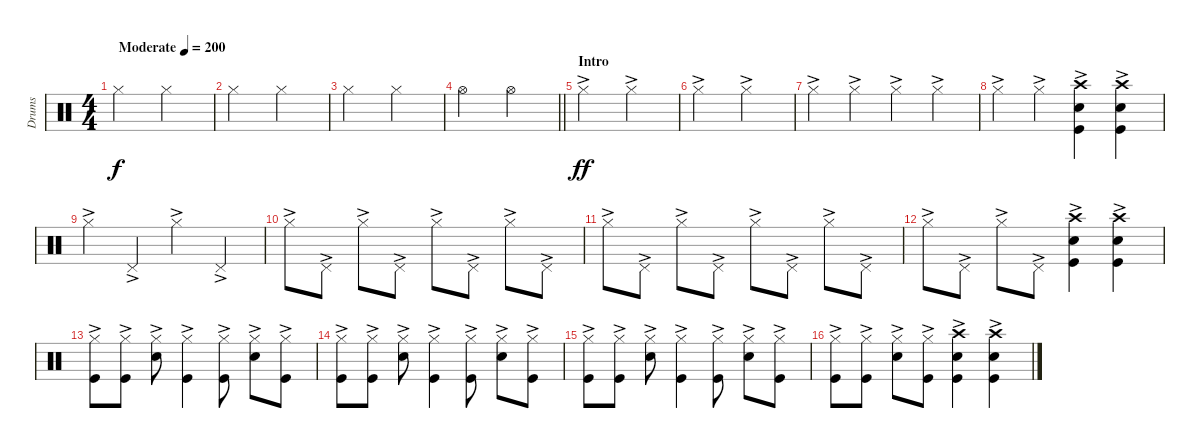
\track ("Drums" "Drums") {instrument percussion}
\staff {score}
\articulation defaults
\ts (4 4)
\tempo (200 "Moderate")
\clef neutral
\ks c "Hi-Hat (closed)".2{dy f} "Hi-Hat (closed)".2
|
"Hi-Hat (closed)".2 "Hi-Hat (closed)".2 |
"Hi-Hat (closed)".2 "Hi-Hat (closed)".2 |
\barLineRight lightlight "Hi-Hat (open)".2 "Hi-Hat (open)".2
|
\section ("" "Intro")
"Hi-Hat (closed)"{ac}.2{dy ff} "Hi-Hat (closed)"{ac}.2 |
"Hi-Hat (closed)"{ac}.2 "Hi-Hat (closed)"{ac}.2 |
"Hi-Hat (closed)"{ac}.4 "Hi-Hat (closed)"{ac}.4 "Hi-Hat (closed)"{ac}.4 "Hi-Hat (closed)"{ac}.4 |
"Hi-Hat (closed)"{ac}.4 "Hi-Hat (closed)"{ac}.4 ("Crash high (hit)"{ac} "Snare (hit) 2"{ac} "Kick (hit)"{ac}).4 ("Crash high (hit)"{ac} "Snare (hit) 2"{ac} "Kick (hit)"{ac}).4 |
"Hi-Hat (closed)"{ac}.4 "Pedal Hi-Hat (hit)"{ac}.4 "Hi-Hat (closed)"{ac}.4 "Pedal Hi-Hat (hit)"{ac}.4 |
"Hi-Hat (closed)"{ac}.8 "Pedal Hi-Hat (hit)"{ac}.8 "Hi-Hat (closed)"{ac}.8 "Pedal Hi-Hat (hit)"{ac}.8 "Hi-Hat (closed)"{ac}.8 "Pedal Hi-Hat (hit)"{ac}.8 "Hi-Hat (closed)"{ac}.8 "Pedal Hi-Hat (hit)"{ac}.8 |
"Hi-Hat (closed)"{ac}.8 "Pedal Hi-Hat (hit)"{ac}.8 "Hi-Hat (closed)"{ac}.8 "Pedal Hi-Hat (hit)"{ac}.8 "Hi-Hat (closed)"{ac}.8 "Pedal Hi-Hat (hit)"{ac}.8 "Hi-Hat (closed)"{ac}.8 "Pedal Hi-Hat (hit)"{ac}.8 |
"Hi-Hat (closed)"{ac}.8 "Pedal Hi-Hat (hit)"{ac}.8 "Hi-Hat (closed)"{ac}.8 "Pedal Hi-Hat (hit)"{ac}.8 ("Crash high (hit)"{ac} "Snare (hit) 2"{ac} "Kick (hit)"{ac}).4 ("Crash high (hit)"{ac} "Snare (hit) 2"{ac} "Kick (hit)"{ac}).4 |
("Hi-Hat (closed)"{ac} "Kick (hit)"{ac}).8 ("Hi-Hat (closed)"{ac} "Kick (hit)"{ac}).8 ("Hi-Hat (closed)"{ac} "Snare (hit) 2"{ac}).8 ("Hi-Hat (closed)"{ac} "Kick (hit)"{ac}).4 ("Hi-Hat (closed)"{ac} "Kick (hit)"{ac}).8 ("Hi-Hat (closed)"{ac} "Snare (hit) 2"{ac}).8 ("Hi-Hat (closed)"{ac} "Kick (hit)"{ac}).8 |
("Hi-Hat (closed)"{ac} "Kick (hit)"{ac}).8 ("Hi-Hat (closed)"{ac} "Kick (hit)"{ac}).8 ("Hi-Hat (closed)"{ac} "Snare (hit) 2"{ac}).8 ("Hi-Hat (closed)"{ac} "Kick (hit)"{ac}).4 ("Hi-Hat (closed)"{ac} "Kick (hit)"{ac}).8 ("Hi-Hat (closed)"{ac} "Snare (hit) 2"{ac}).8 ("Hi-Hat (closed)"{ac} "Kick (hit)"{ac}).8 |
("Hi-Hat (closed)"{ac} "Kick (hit)"{ac}).8 ("Hi-Hat (closed)"{ac} "Kick (hit)"{ac}).8 ("Hi-Hat (closed)"{ac} "Snare (hit) 2"{ac}).8 ("Hi-Hat (closed)"{ac} "Kick (hit)"{ac}).4 ("Hi-Hat (closed)"{ac} "Kick (hit)"{ac}).8 ("Hi-Hat (closed)"{ac} "Snare (hit) 2"{ac}).8 ("Hi-Hat (closed)"{ac} "Kick (hit)"{ac}).8 |
("Hi-Hat (closed)"{ac} "Kick (hit)"{ac}).8 ("Hi-Hat (closed)"{ac} "Kick (hit)"{ac}).8 ("Hi-Hat (closed)"{ac} "Snare (hit) 2"{ac}).8 ("Hi-Hat (closed)"{ac} "Kick (hit)"{ac}).8 ("Snare (hit) 2"{ac} "Crash high (hit)" "Kick (hit)"{ac}).4 ("Snare (hit) 2"{ac} "Crash high (hit)" "Kick (hit)"{ac}).4
